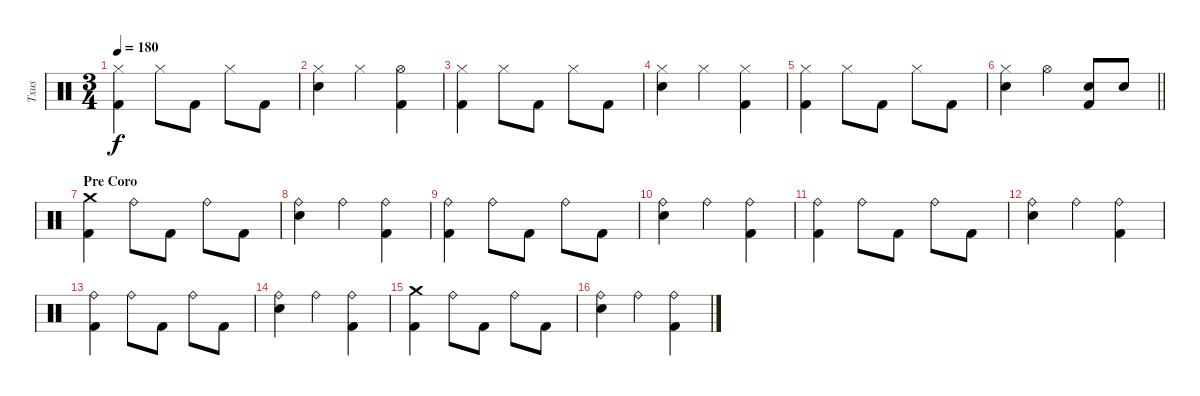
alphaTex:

\track ("Txus" "Txus") {instrument percussion}
\staff {score}
\articulation defaults
\ts (3 4)
\tempo 180
\clef neutral
\ks c
("Hi-Hat (closed)" "Kick (hit) 2").4{dy f} "Hi-Hat (closed)".8 "Kick (hit) 2".8 "Hi-Hat (closed)".8 "Kick (hit) 2".8 |
("Hi-Hat (closed)" "Snare (hit) 2").4 "Hi-Hat (closed)".4 ("Hi-Hat (open)" "Kick (hit) 2").4 |
("Hi-Hat (closed)" "Kick (hit) 2").4 "Hi-Hat (closed)".8 "Kick (hit) 2".8 "Hi-Hat (closed)".8 "Kick (hit) 2".8 |
("Hi-Hat (closed)" "Snare (hit) 2").4 "Hi-Hat (closed)".4 ("Hi-Hat (closed)" "Kick (hit) 2").4 |
("Hi-Hat (closed)" "Kick (hit) 2").4 "Hi-Hat (closed)".8 "Kick (hit) 2".8 "Hi-Hat (closed)".8 "Kick (hit) 2".8 |
\barLineRight lightlight
("Hi-Hat (closed)" "Snare (hit) 2").4 "Hi-Hat (open)".4 ("Snare (hit) 2" "Kick (hit) 2").8 "Snare (hit) 2".8 |
\section ("" "Pre Coro")
("Crash medium (hit)" "Kick (hit) 2").4 "Ride (bell)".8 "Kick (hit) 2".8 "Ride (bell)".8 "Kick (hit) 2".8 |
("Ride (bell)" "Snare (hit) 2").4 "Ride (bell)".4 ("Ride (bell)" "Kick (hit) 2").4 |
("Ride (bell)" "Kick (hit) 2").4 "Ride (bell)".8 "Kick (hit) 2".8 "Ride (bell)".8 "Kick (hit) 2".8 |
("Ride (bell)" "Snare (hit) 2").4 "Ride (bell)".4 ("Ride (bell)" "Kick (hit) 2").4 |
("Ride (bell)" "Kick (hit) 2").4 "Ride (bell)".8 "Kick (hit) 2".8 "Ride (bell)".8 "Kick (hit) 2".8 |
("Ride (bell)" "Snare (hit) 2").4 "Ride (bell)".4 ("Ride (bell)" "Kick (hit) 2").4 |
("Ride (bell)" "Kick (hit) 2").4 "Ride (bell)".8 "Kick (hit) 2".8 "Ride (bell)".8 "Kick (hit) 2".8 |
("Ride (bell)" "Snare (hit) 2").4 "Ride (bell)".4 ("Ride (bell)" "Kick (hit) 2").4 |
("Crash medium (hit)" "Kick (hit) 2").4 "Ride (bell)".8 "Kick (hit) 2".8 "Ride (bell)".8 "Kick (hit) 2".8 |
("Ride (bell)" "Snare (hit) 2").4 "Ride (bell)".4 ("Ride (bell)" "Kick (hit) 2").4
